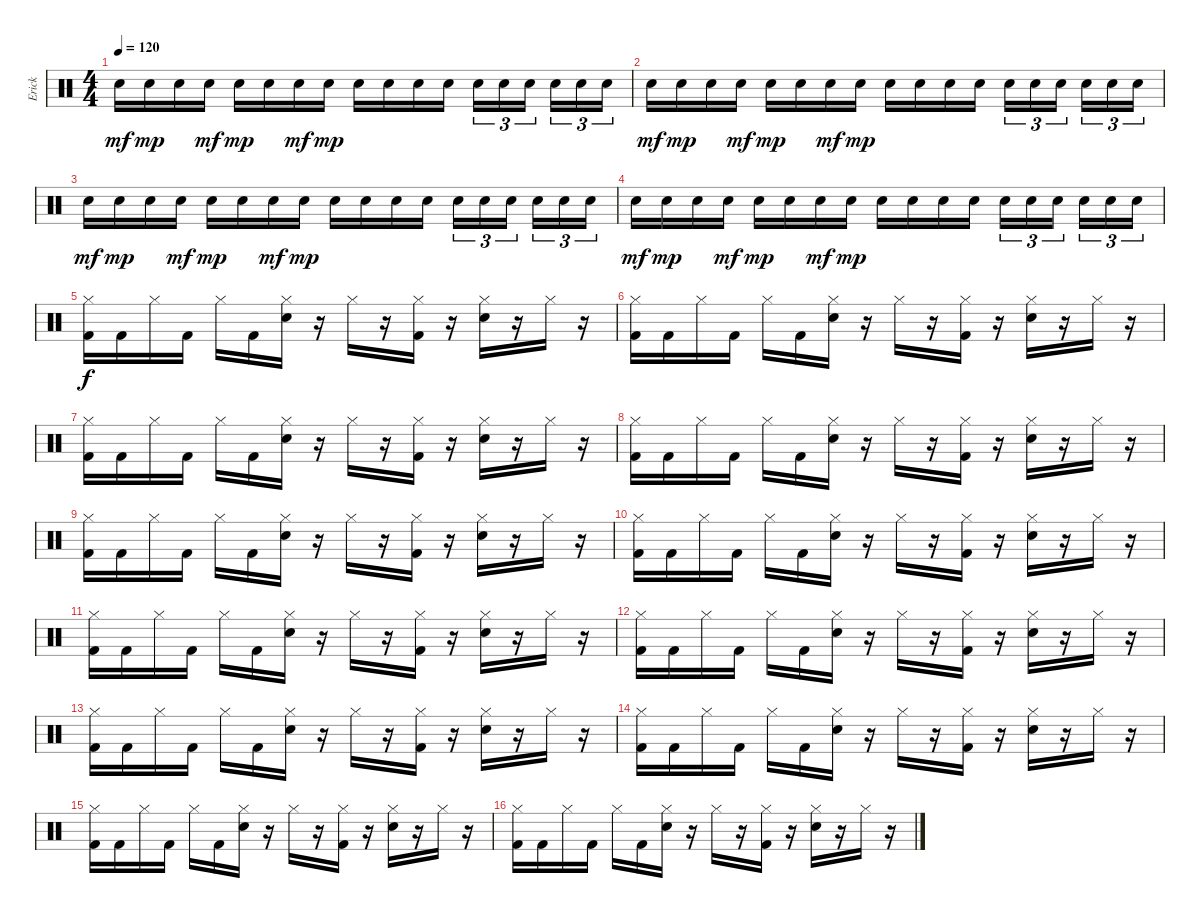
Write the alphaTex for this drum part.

\track ("Erick" "Erick") {instrument percussion}
\staff {score}
\articulation defaults
\ts (4 4)
\tempo 120
\clef neutral
\ks c "Snare (hit) 2".16{dy mf} "Snare (hit) 2".16{dy mp} "Snare (hit) 2".16 "Electric Snare (hit)".16{dy mf} "Snare (hit) 2".16{dy mp} "Snare (hit) 2".16 "Electric Snare (hit)".16{dy mf} "Snare (hit) 2".16{dy mp} "Snare (hit) 2".16 "Snare (hit) 2".16 "Snare (hit) 2".16 "Snare (hit) 2".16 "Snare (hit) 2".16{tu (3 2)} "Snare (hit) 2".16{tu (3 2)} "Snare (hit) 2".16{tu (3 2)} "Snare (hit) 2".16{tu (3 2)} "Snare (hit) 2".16{tu (3 2)} "Snare (hit) 2".16{tu (3 2)}
|
"Snare (hit) 2".16{dy mf} "Snare (hit) 2".16{dy mp} "Snare (hit) 2".16 "Electric Snare (hit)".16{dy mf} "Snare (hit) 2".16{dy mp} "Snare (hit) 2".16 "Electric Snare (hit)".16{dy mf} "Snare (hit) 2".16{dy mp} "Snare (hit) 2".16 "Snare (hit) 2".16 "Snare (hit) 2".16 "Snare (hit) 2".16 "Snare (hit) 2".16{tu (3 2)} "Snare (hit) 2".16{tu (3 2)} "Snare (hit) 2".16{tu (3 2)} "Snare (hit) 2".16{tu (3 2)} "Snare (hit) 2".16{tu (3 2)} "Snare (hit) 2".16{tu (3 2)} |
"Snare (hit) 2".16{dy mf} "Snare (hit) 2".16{dy mp} "Snare (hit) 2".16 "Electric Snare (hit)".16{dy mf} "Snare (hit) 2".16{dy mp} "Snare (hit) 2".16 "Electric Snare (hit)".16{dy mf} "Snare (hit) 2".16{dy mp} "Snare (hit) 2".16 "Snare (hit) 2".16 "Snare (hit) 2".16 "Snare (hit) 2".16 "Snare (hit) 2".16{tu (3 2)} "Snare (hit) 2".16{tu (3 2)} "Snare (hit) 2".16{tu (3 2)} "Snare (hit) 2".16{tu (3 2)} "Snare (hit) 2".16{tu (3 2)} "Snare (hit) 2".16{tu (3 2)} |
"Snare (hit) 2".16{dy mf} "Snare (hit) 2".16{dy mp} "Snare (hit) 2".16 "Electric Snare (hit)".16{dy mf} "Snare (hit) 2".16{dy mp} "Snare (hit) 2".16 "Electric Snare (hit)".16{dy mf} "Snare (hit) 2".16{dy mp} "Snare (hit) 2".16 "Snare (hit) 2".16 "Snare (hit) 2".16 "Snare (hit) 2".16 "Snare (hit) 2".16{tu (3 2)} "Snare (hit) 2".16{tu (3 2)} "Snare (hit) 2".16{tu (3 2)} "Snare (hit) 2".16{tu (3 2)} "Snare (hit) 2".16{tu (3 2)} "Snare (hit) 2".16{tu (3 2)} |
("Hi-Hat (closed)" "Kick (hit) 2").16{dy f} "Kick (hit) 2".16 "Hi-Hat (closed)".16 "Kick (hit) 2".16 "Hi-Hat (closed)".16 "Kick (hit) 2".16 ("Hi-Hat (closed)" "Electric Snare (hit)").16 r.16 "Hi-Hat (closed)".16 r.16 ("Hi-Hat (closed)" "Kick (hit) 2").16 r.16 ("Hi-Hat (closed)" "Electric Snare (hit)").16 r.16 "Hi-Hat (closed)".16 r.16 |
("Hi-Hat (closed)" "Kick (hit) 2").16 "Kick (hit) 2".16 "Hi-Hat (closed)".16 "Kick (hit) 2".16 "Hi-Hat (closed)".16 "Kick (hit) 2".16 ("Hi-Hat (closed)" "Electric Snare (hit)").16 r.16 "Hi-Hat (closed)".16 r.16 ("Hi-Hat (closed)" "Kick (hit) 2").16 r.16 ("Hi-Hat (closed)" "Electric Snare (hit)").16 r.16 "Hi-Hat (closed)".16 r.16 |
("Hi-Hat (closed)" "Kick (hit) 2").16 "Kick (hit) 2".16 "Hi-Hat (closed)".16 "Kick (hit) 2".16 "Hi-Hat (closed)".16 "Kick (hit) 2".16 ("Hi-Hat (closed)" "Electric Snare (hit)").16 r.16 "Hi-Hat (closed)".16 r.16 ("Hi-Hat (closed)" "Kick (hit) 2").16 r.16 ("Hi-Hat (closed)" "Electric Snare (hit)").16 r.16 "Hi-Hat (closed)".16 r.16 |
("Hi-Hat (closed)" "Kick (hit) 2").16 "Kick (hit) 2".16 "Hi-Hat (closed)".16 "Kick (hit) 2".16 "Hi-Hat (closed)".16 "Kick (hit) 2".16 ("Hi-Hat (closed)" "Electric Snare (hit)").16 r.16 "Hi-Hat (closed)".16 r.16 ("Hi-Hat (closed)" "Kick (hit) 2").16 r.16 ("Hi-Hat (closed)" "Electric Snare (hit)").16 r.16 "Hi-Hat (closed)".16 r.16 |
("Hi-Hat (closed)" "Kick (hit) 2").16 "Kick (hit) 2".16 "Hi-Hat (closed)".16 "Kick (hit) 2".16 "Hi-Hat (closed)".16 "Kick (hit) 2".16 ("Hi-Hat (closed)" "Electric Snare (hit)").16 r.16 "Hi-Hat (closed)".16 r.16 ("Hi-Hat (closed)" "Kick (hit) 2").16 r.16 ("Hi-Hat (closed)" "Electric Snare (hit)").16 r.16 "Hi-Hat (closed)".16 r.16 |
("Hi-Hat (closed)" "Kick (hit) 2").16 "Kick (hit) 2".16 "Hi-Hat (closed)".16 "Kick (hit) 2".16 "Hi-Hat (closed)".16 "Kick (hit) 2".16 ("Hi-Hat (closed)" "Electric Snare (hit)").16 r.16 "Hi-Hat (closed)".16 r.16 ("Hi-Hat (closed)" "Kick (hit) 2").16 r.16 ("Hi-Hat (closed)" "Electric Snare (hit)").16 r.16 "Hi-Hat (closed)".16 r.16 |
("Hi-Hat (closed)" "Kick (hit) 2").16 "Kick (hit) 2".16 "Hi-Hat (closed)".16 "Kick (hit) 2".16 "Hi-Hat (closed)".16 "Kick (hit) 2".16 ("Hi-Hat (closed)" "Electric Snare (hit)").16 r.16 "Hi-Hat (closed)".16 r.16 ("Hi-Hat (closed)" "Kick (hit) 2").16 r.16 ("Hi-Hat (closed)" "Electric Snare (hit)").16 r.16 "Hi-Hat (closed)".16 r.16 |
("Hi-Hat (closed)" "Kick (hit) 2").16 "Kick (hit) 2".16 "Hi-Hat (closed)".16 "Kick (hit) 2".16 "Hi-Hat (closed)".16 "Kick (hit) 2".16 ("Hi-Hat (closed)" "Electric Snare (hit)").16 r.16 "Hi-Hat (closed)".16 r.16 ("Hi-Hat (closed)" "Kick (hit) 2").16 r.16 ("Hi-Hat (closed)" "Electric Snare (hit)").16 r.16 "Hi-Hat (closed)".16 r.16 |
("Hi-Hat (closed)" "Kick (hit) 2").16 "Kick (hit) 2".16 "Hi-Hat (closed)".16 "Kick (hit) 2".16 "Hi-Hat (closed)".16 "Kick (hit) 2".16 ("Hi-Hat (closed)" "Electric Snare (hit)").16 r.16 "Hi-Hat (closed)".16 r.16 ("Hi-Hat (closed)" "Kick (hit) 2").16 r.16 ("Hi-Hat (closed)" "Electric Snare (hit)").16 r.16 "Hi-Hat (closed)".16 r.16 |
("Hi-Hat (closed)" "Kick (hit) 2").16 "Kick (hit) 2".16 "Hi-Hat (closed)".16 "Kick (hit) 2".16 "Hi-Hat (closed)".16 "Kick (hit) 2".16 ("Hi-Hat (closed)" "Electric Snare (hit)").16 r.16 "Hi-Hat (closed)".16 r.16 ("Hi-Hat (closed)" "Kick (hit) 2").16 r.16 ("Hi-Hat (closed)" "Electric Snare (hit)").16 r.16 "Hi-Hat (closed)".16 r.16 |
("Hi-Hat (closed)" "Kick (hit) 2").16 "Kick (hit) 2".16 "Hi-Hat (closed)".16 "Kick (hit) 2".16 "Hi-Hat (closed)".16 "Kick (hit) 2".16 ("Hi-Hat (closed)" "Electric Snare (hit)").16 r.16 "Hi-Hat (closed)".16 r.16 ("Hi-Hat (closed)" "Kick (hit) 2").16 r.16 ("Hi-Hat (closed)" "Electric Snare (hit)").16 r.16 "Hi-Hat (closed)".16 r.16 |
("Hi-Hat (closed)" "Kick (hit) 2").16 "Kick (hit) 2".16 "Hi-Hat (closed)".16 "Kick (hit) 2".16 "Hi-Hat (closed)".16 "Kick (hit) 2".16 ("Hi-Hat (closed)" "Electric Snare (hit)").16 r.16 "Hi-Hat (closed)".16 r.16 ("Hi-Hat (closed)" "Kick (hit) 2").16 r.16 ("Hi-Hat (closed)" "Electric Snare (hit)").16 r.16 "Hi-Hat (closed)".16 r.16
